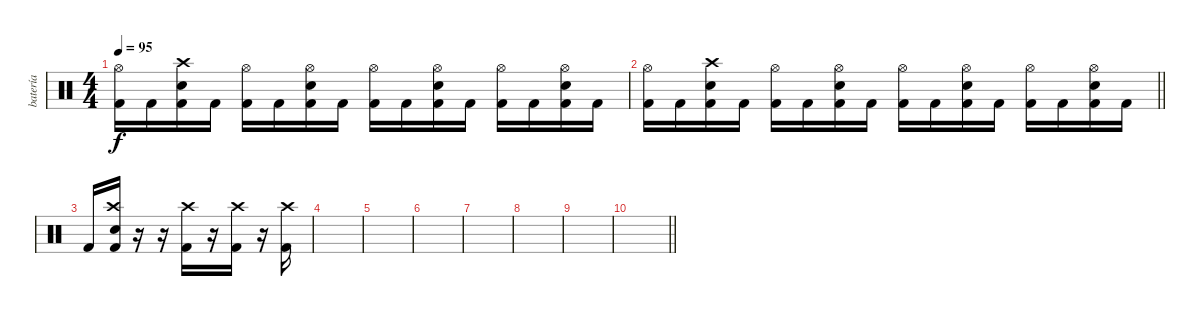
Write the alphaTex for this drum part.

\track ("batería" "batería") {instrument percussion}
\staff {score}
\articulation defaults
\ts (4 4)
\tempo 95
\clef neutral
\ks c
("Hi-Hat (open)" "Kick (hit) 2").16{dy f} "Kick (hit) 2".16 ("Crash high (hit)" "Electric Snare (hit)" "Kick (hit) 2").16 "Kick (hit) 2".16 ("Hi-Hat (open)" "Kick (hit) 2").16 "Kick (hit) 2".16 ("Hi-Hat (open)" "Electric Snare (hit)" "Kick (hit) 2").16 "Kick (hit) 2".16 ("Hi-Hat (open)" "Kick (hit) 2").16 "Kick (hit) 2".16 ("Hi-Hat (open)" "Electric Snare (hit)" "Kick (hit) 2").16 "Kick (hit) 2".16 ("Hi-Hat (open)" "Kick (hit) 2").16 "Kick (hit) 2".16 ("Hi-Hat (open)" "Electric Snare (hit)" "Kick (hit) 2").16 "Kick (hit) 2".16 |
\barLineRight lightlight
("Hi-Hat (open)" "Kick (hit) 2").16 "Kick (hit) 2".16 ("Crash high (hit)" "Electric Snare (hit)" "Kick (hit) 2").16 "Kick (hit) 2".16 ("Hi-Hat (open)" "Kick (hit) 2").16 "Kick (hit) 2".16 ("Hi-Hat (open)" "Electric Snare (hit)" "Kick (hit) 2").16 "Kick (hit) 2".16 ("Hi-Hat (open)" "Kick (hit) 2").16 "Kick (hit) 2".16 ("Hi-Hat (open)" "Electric Snare (hit)" "Kick (hit) 2").16 "Kick (hit) 2".16 ("Hi-Hat (open)" "Kick (hit) 2").16 "Kick (hit) 2".16 ("Hi-Hat (open)" "Electric Snare (hit)" "Kick (hit) 2").16 "Kick (hit) 2".16 |
"Kick (hit) 2".16 ("Crash high (hit)" "Electric Snare (hit)" "Kick (hit) 2").16 r.16 r.16 ("Crash high (hit)" "Kick (hit) 2").16 r.16 ("Crash high (hit)" "Kick (hit) 2").16 r.16 ("Crash high (hit)" "Kick (hit) 2").16 |
|
|
|
|
|
|
\barLineRight lightlight
